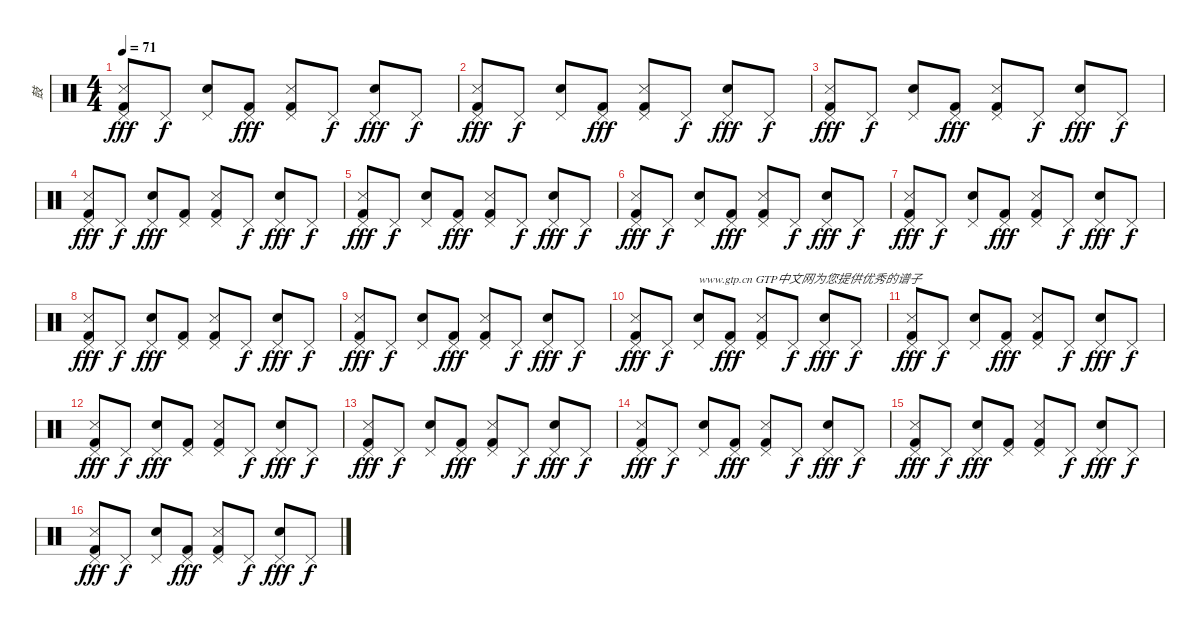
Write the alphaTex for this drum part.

\track ("鼓" "鼓") {instrument percussion}
\staff {score}
\articulation defaults
\ts (4 4)
\tempo 71
\clef neutral
\ks c
("Snare (side stick) 3" "Pedal Hi-Hat (hit)" "Kick (hit) 2").8{dy fff} "Pedal Hi-Hat (hit)".8{dy f} ("Hand Clap (hit)" "Pedal Hi-Hat (hit)").8 ("Pedal Hi-Hat (hit)" "Kick (hit) 2").8{dy fff} ("Snare (side stick) 3" "Pedal Hi-Hat (hit)" "Kick (hit) 2").8 "Pedal Hi-Hat (hit)".8{dy f} ("Hand Clap (hit)" "Pedal Hi-Hat (hit)").8{dy fff} "Pedal Hi-Hat (hit)".8{dy f} |
("Snare (side stick) 3" "Pedal Hi-Hat (hit)" "Kick (hit) 2").8{dy fff} "Pedal Hi-Hat (hit)".8{dy f} ("Hand Clap (hit)" "Pedal Hi-Hat (hit)").8 ("Pedal Hi-Hat (hit)" "Kick (hit) 2").8{dy fff} ("Snare (side stick) 3" "Pedal Hi-Hat (hit)" "Kick (hit) 2").8 "Pedal Hi-Hat (hit)".8{dy f} ("Hand Clap (hit)" "Pedal Hi-Hat (hit)").8{dy fff} "Pedal Hi-Hat (hit)".8{dy f} |
("Snare (side stick) 3" "Pedal Hi-Hat (hit)" "Kick (hit) 2").8{dy fff} "Pedal Hi-Hat (hit)".8{dy f} ("Hand Clap (hit)" "Pedal Hi-Hat (hit)").8 ("Pedal Hi-Hat (hit)" "Kick (hit) 2").8{dy fff} ("Snare (side stick) 3" "Pedal Hi-Hat (hit)" "Kick (hit) 2").8 "Pedal Hi-Hat (hit)".8{dy f} ("Hand Clap (hit)" "Pedal Hi-Hat (hit)").8{dy fff} "Pedal Hi-Hat (hit)".8{dy f} |
("Snare (side stick) 3" "Pedal Hi-Hat (hit)" "Kick (hit) 2").8{dy fff} "Pedal Hi-Hat (hit)".8{dy f} ("Hand Clap (hit)" "Pedal Hi-Hat (hit)").8{dy fff} ("Pedal Hi-Hat (hit)" "Kick (hit) 2").8 ("Snare (side stick) 3" "Pedal Hi-Hat (hit)" "Kick (hit) 2").8 "Pedal Hi-Hat (hit)".8{dy f} ("Hand Clap (hit)" "Pedal Hi-Hat (hit)").8{dy fff} "Pedal Hi-Hat (hit)".8{dy f} |
("Snare (side stick) 3" "Pedal Hi-Hat (hit)" "Kick (hit) 2").8{dy fff} "Pedal Hi-Hat (hit)".8{dy f} ("Hand Clap (hit)" "Pedal Hi-Hat (hit)").8 ("Pedal Hi-Hat (hit)" "Kick (hit) 2").8{dy fff} ("Snare (side stick) 3" "Pedal Hi-Hat (hit)" "Kick (hit) 2").8 "Pedal Hi-Hat (hit)".8{dy f} ("Hand Clap (hit)" "Pedal Hi-Hat (hit)").8{dy fff} "Pedal Hi-Hat (hit)".8{dy f} |
("Snare (side stick) 3" "Pedal Hi-Hat (hit)" "Kick (hit) 2").8{dy fff} "Pedal Hi-Hat (hit)".8{dy f} ("Hand Clap (hit)" "Pedal Hi-Hat (hit)").8 ("Pedal Hi-Hat (hit)" "Kick (hit) 2").8{dy fff} ("Snare (side stick) 3" "Pedal Hi-Hat (hit)" "Kick (hit) 2").8 "Pedal Hi-Hat (hit)".8{dy f} ("Hand Clap (hit)" "Pedal Hi-Hat (hit)").8{dy fff} "Pedal Hi-Hat (hit)".8{dy f} |
("Snare (side stick) 3" "Pedal Hi-Hat (hit)" "Kick (hit) 2").8{dy fff} "Pedal Hi-Hat (hit)".8{dy f} ("Hand Clap (hit)" "Pedal Hi-Hat (hit)").8 ("Pedal Hi-Hat (hit)" "Kick (hit) 2").8{dy fff} ("Snare (side stick) 3" "Pedal Hi-Hat (hit)" "Kick (hit) 2").8 "Pedal Hi-Hat (hit)".8{dy f} ("Hand Clap (hit)" "Pedal Hi-Hat (hit)").8{dy fff} "Pedal Hi-Hat (hit)".8{dy f} |
("Snare (side stick) 3" "Pedal Hi-Hat (hit)" "Kick (hit) 2").8{dy fff} "Pedal Hi-Hat (hit)".8{dy f} ("Hand Clap (hit)" "Pedal Hi-Hat (hit)").8{dy fff} ("Pedal Hi-Hat (hit)" "Kick (hit) 2").8 ("Snare (side stick) 3" "Pedal Hi-Hat (hit)" "Kick (hit) 2").8 "Pedal Hi-Hat (hit)".8{dy f} ("Hand Clap (hit)" "Pedal Hi-Hat (hit)").8{dy fff} "Pedal Hi-Hat (hit)".8{dy f} |
("Snare (side stick) 3" "Pedal Hi-Hat (hit)" "Kick (hit) 2").8{dy fff} "Pedal Hi-Hat (hit)".8{dy f} ("Hand Clap (hit)" "Pedal Hi-Hat (hit)").8 ("Pedal Hi-Hat (hit)" "Kick (hit) 2").8{dy fff} ("Snare (side stick) 3" "Pedal Hi-Hat (hit)" "Kick (hit) 2").8 "Pedal Hi-Hat (hit)".8{dy f} ("Hand Clap (hit)" "Pedal Hi-Hat (hit)").8{dy fff} "Pedal Hi-Hat (hit)".8{dy f} |
("Snare (side stick) 3" "Pedal Hi-Hat (hit)" "Kick (hit) 2").8{dy fff} "Pedal Hi-Hat (hit)".8{dy f} ("Hand Clap (hit)" "Pedal Hi-Hat (hit)").8{txt "www.gtp.cn GTP中文网为您提供优秀的谱子"} ("Pedal Hi-Hat (hit)" "Kick (hit) 2").8{dy fff} ("Snare (side stick) 3" "Pedal Hi-Hat (hit)" "Kick (hit) 2").8 "Pedal Hi-Hat (hit)".8{dy f} ("Hand Clap (hit)" "Pedal Hi-Hat (hit)").8{dy fff} "Pedal Hi-Hat (hit)".8{dy f} |
("Snare (side stick) 3" "Pedal Hi-Hat (hit)" "Kick (hit) 2").8{dy fff} "Pedal Hi-Hat (hit)".8{dy f} ("Hand Clap (hit)" "Pedal Hi-Hat (hit)").8 ("Pedal Hi-Hat (hit)" "Kick (hit) 2").8{dy fff} ("Snare (side stick) 3" "Pedal Hi-Hat (hit)" "Kick (hit) 2").8 "Pedal Hi-Hat (hit)".8{dy f} ("Hand Clap (hit)" "Pedal Hi-Hat (hit)").8{dy fff} "Pedal Hi-Hat (hit)".8{dy f} |
("Snare (side stick) 3" "Pedal Hi-Hat (hit)" "Kick (hit) 2").8{dy fff} "Pedal Hi-Hat (hit)".8{dy f} ("Hand Clap (hit)" "Pedal Hi-Hat (hit)").8{dy fff} ("Pedal Hi-Hat (hit)" "Kick (hit) 2").8 ("Snare (side stick) 3" "Pedal Hi-Hat (hit)" "Kick (hit) 2").8 "Pedal Hi-Hat (hit)".8{dy f} ("Hand Clap (hit)" "Pedal Hi-Hat (hit)").8{dy fff} "Pedal Hi-Hat (hit)".8{dy f} |
("Snare (side stick) 3" "Pedal Hi-Hat (hit)" "Kick (hit) 2").8{dy fff} "Pedal Hi-Hat (hit)".8{dy f} ("Hand Clap (hit)" "Pedal Hi-Hat (hit)").8 ("Pedal Hi-Hat (hit)" "Kick (hit) 2").8{dy fff} ("Snare (side stick) 3" "Pedal Hi-Hat (hit)" "Kick (hit) 2").8 "Pedal Hi-Hat (hit)".8{dy f} ("Hand Clap (hit)" "Pedal Hi-Hat (hit)").8{dy fff} "Pedal Hi-Hat (hit)".8{dy f} |
("Snare (side stick) 3" "Pedal Hi-Hat (hit)" "Kick (hit) 2").8{dy fff} "Pedal Hi-Hat (hit)".8{dy f} ("Hand Clap (hit)" "Pedal Hi-Hat (hit)").8 ("Pedal Hi-Hat (hit)" "Kick (hit) 2").8{dy fff} ("Snare (side stick) 3" "Pedal Hi-Hat (hit)" "Kick (hit) 2").8 "Pedal Hi-Hat (hit)".8{dy f} ("Hand Clap (hit)" "Pedal Hi-Hat (hit)").8{dy fff} "Pedal Hi-Hat (hit)".8{dy f} |
("Snare (side stick) 3" "Pedal Hi-Hat (hit)" "Kick (hit) 2").8{dy fff} "Pedal Hi-Hat (hit)".8{dy f} ("Hand Clap (hit)" "Pedal Hi-Hat (hit)").8{dy fff} ("Pedal Hi-Hat (hit)" "Kick (hit) 2").8 ("Snare (side stick) 3" "Pedal Hi-Hat (hit)" "Kick (hit) 2").8 "Pedal Hi-Hat (hit)".8{dy f} ("Hand Clap (hit)" "Pedal Hi-Hat (hit)").8{dy fff} "Pedal Hi-Hat (hit)".8{dy f} |
("Snare (side stick) 3" "Pedal Hi-Hat (hit)" "Kick (hit) 2").8{dy fff} "Pedal Hi-Hat (hit)".8{dy f} ("Hand Clap (hit)" "Pedal Hi-Hat (hit)").8 ("Pedal Hi-Hat (hit)" "Kick (hit) 2").8{dy fff} ("Snare (side stick) 3" "Pedal Hi-Hat (hit)" "Kick (hit) 2").8 "Pedal Hi-Hat (hit)".8{dy f} ("Hand Clap (hit)" "Pedal Hi-Hat (hit)").8{dy fff} "Pedal Hi-Hat (hit)".8{dy f}
